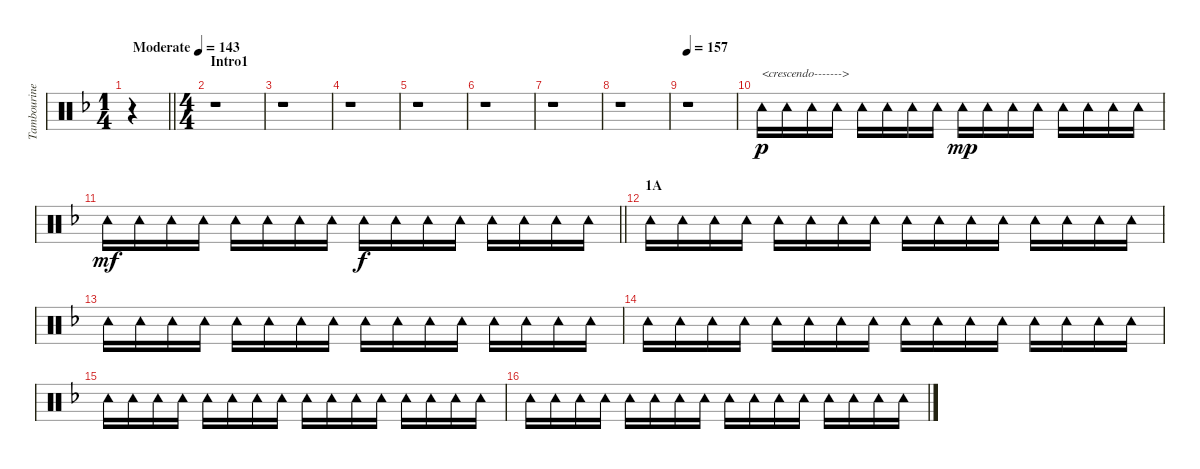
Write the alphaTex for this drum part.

\track ("Tambourine" "Tambourine") {instrument percussion}
\staff {score}
\articulation defaults
\ts (1 4)
\tempo (143 "Moderate")
\clef neutral
\barLineRight lightlight
\ks f
r.4{dy p} |
\ts (4 4)
\section ("" "Intro1")
r.1 |
r.1 |
r.1 |
r.1 |
r.1 |
r.1 |
r.1 |
\tempo 157
r.1 |
"Tambourine (hit)".16{txt "<crescendo------->"} "Tambourine (hit)".16 "Tambourine (hit)".16 "Tambourine (hit)".16 "Tambourine (hit)".16 "Tambourine (hit)".16 "Tambourine (hit)".16 "Tambourine (hit)".16 "Tambourine (hit)".16{dy mp} "Tambourine (hit)".16 "Tambourine (hit)".16 "Tambourine (hit)".16 "Tambourine (hit)".16 "Tambourine (hit)".16 "Tambourine (hit)".16 "Tambourine (hit)".16 |
\barLineRight lightlight "Tambourine (hit)".16{dy mf} "Tambourine (hit)".16 "Tambourine (hit)".16 "Tambourine (hit)".16 "Tambourine (hit)".16 "Tambourine (hit)".16 "Tambourine (hit)".16 "Tambourine (hit)".16 "Tambourine (hit)".16{dy f} "Tambourine (hit)".16 "Tambourine (hit)".16 "Tambourine (hit)".16 "Tambourine (hit)".16 "Tambourine (hit)".16 "Tambourine (hit)".16 "Tambourine (hit)".16
|
\section ("" "1A")
"Tambourine (hit)".16 "Tambourine (hit)".16 "Tambourine (hit)".16 "Tambourine (hit)".16 "Tambourine (hit)".16 "Tambourine (hit)".16 "Tambourine (hit)".16 "Tambourine (hit)".16 "Tambourine (hit)".16 "Tambourine (hit)".16 "Tambourine (hit)".16 "Tambourine (hit)".16 "Tambourine (hit)".16 "Tambourine (hit)".16 "Tambourine (hit)".16 "Tambourine (hit)".16 |
"Tambourine (hit)".16 "Tambourine (hit)".16 "Tambourine (hit)".16 "Tambourine (hit)".16 "Tambourine (hit)".16 "Tambourine (hit)".16 "Tambourine (hit)".16 "Tambourine (hit)".16 "Tambourine (hit)".16 "Tambourine (hit)".16 "Tambourine (hit)".16 "Tambourine (hit)".16 "Tambourine (hit)".16 "Tambourine (hit)".16 "Tambourine (hit)".16 "Tambourine (hit)".16 |
"Tambourine (hit)".16 "Tambourine (hit)".16 "Tambourine (hit)".16 "Tambourine (hit)".16 "Tambourine (hit)".16 "Tambourine (hit)".16 "Tambourine (hit)".16 "Tambourine (hit)".16 "Tambourine (hit)".16 "Tambourine (hit)".16 "Tambourine (hit)".16 "Tambourine (hit)".16 "Tambourine (hit)".16 "Tambourine (hit)".16 "Tambourine (hit)".16 "Tambourine (hit)".16 |
"Tambourine (hit)".16 "Tambourine (hit)".16 "Tambourine (hit)".16 "Tambourine (hit)".16 "Tambourine (hit)".16 "Tambourine (hit)".16 "Tambourine (hit)".16 "Tambourine (hit)".16 "Tambourine (hit)".16 "Tambourine (hit)".16 "Tambourine (hit)".16 "Tambourine (hit)".16 "Tambourine (hit)".16 "Tambourine (hit)".16 "Tambourine (hit)".16 "Tambourine (hit)".16 |
"Tambourine (hit)".16 "Tambourine (hit)".16 "Tambourine (hit)".16 "Tambourine (hit)".16 "Tambourine (hit)".16 "Tambourine (hit)".16 "Tambourine (hit)".16 "Tambourine (hit)".16 "Tambourine (hit)".16 "Tambourine (hit)".16 "Tambourine (hit)".16 "Tambourine (hit)".16 "Tambourine (hit)".16 "Tambourine (hit)".16 "Tambourine (hit)".16 "Tambourine (hit)".16
